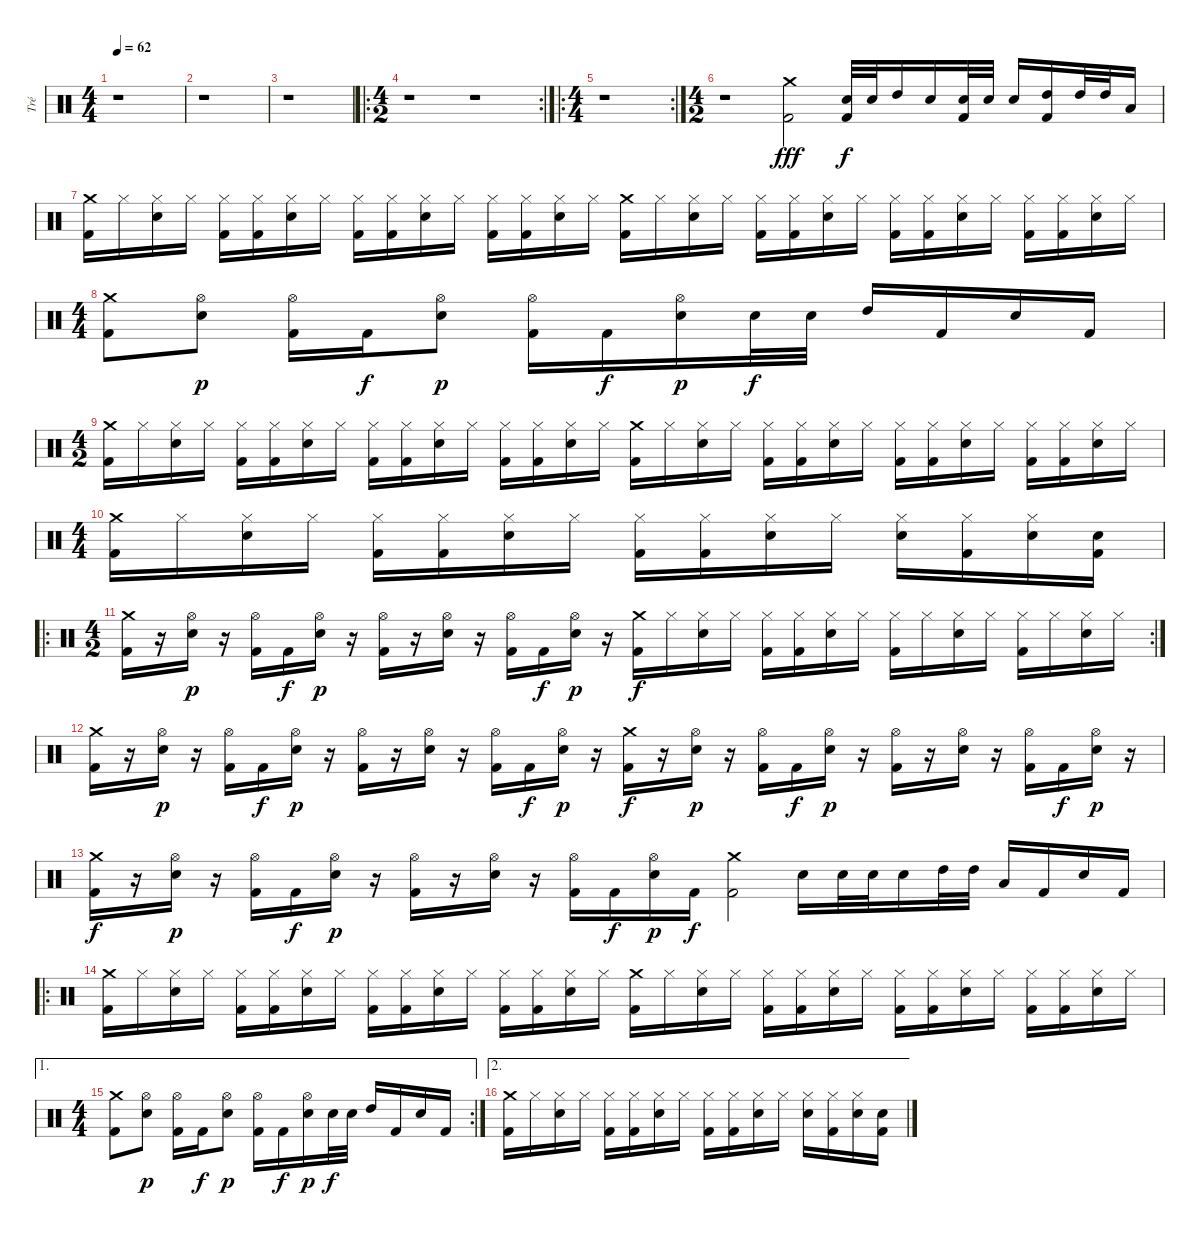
\track ("Tré" "Tré") {instrument percussion}
\staff {score}
\articulation defaults
\ts (4 4)
\tempo 62
\clef neutral
\ks c
r.1{dy fff} |
r.1 |
r.1 |
\ro
\rc 2
\ts (4 2)
r.1 r.1 |
\ro
\rc 2
\ts (4 4)
r.1 |
\ts (4 2)
r.1 ("Crash medium (hit)" "Kick (hit) 2").2 ("Snare (hit) 2" "Kick (hit) 2").32{dy f} "Snare (hit) 2".32 "High Tom (hit)".16 "Snare (hit) 2".16 ("Snare (hit) 2" "Kick (hit) 2").32 "Snare (hit) 2".32 "Snare (hit) 2".16 ("High Tom (hit)" "Kick (hit) 2").16 "High Tom (hit)".32 "High Tom (hit)".32 "Low Tom (hit)".16 |
("Crash medium (hit)" "Kick (hit) 2").16 "Hi-Hat (closed)".16 ("Hi-Hat (closed)" "Snare (hit) 2").16 "Hi-Hat (closed)".16 ("Hi-Hat (closed)" "Kick (hit) 2").16 ("Hi-Hat (closed)" "Kick (hit) 2").16 ("Hi-Hat (closed)" "Snare (hit) 2").16 "Hi-Hat (closed)".16 ("Hi-Hat (closed)" "Kick (hit) 2").16 ("Hi-Hat (closed)" "Kick (hit) 2").16 ("Hi-Hat (closed)" "Snare (hit) 2").16 "Hi-Hat (closed)".16 ("Hi-Hat (closed)" "Kick (hit) 2").16 ("Hi-Hat (closed)" "Kick (hit) 2").16 ("Hi-Hat (closed)" "Snare (hit) 2").16 "Hi-Hat (closed)".16 ("Crash medium (hit)" "Kick (hit) 2").16 "Hi-Hat (closed)".16 ("Hi-Hat (closed)" "Snare (hit) 2").16 "Hi-Hat (closed)".16 ("Hi-Hat (closed)" "Kick (hit) 2").16 ("Hi-Hat (closed)" "Kick (hit) 2").16 ("Hi-Hat (closed)" "Snare (hit) 2").16 "Hi-Hat (closed)".16 ("Hi-Hat (closed)" "Kick (hit) 2").16 ("Hi-Hat (closed)" "Kick (hit) 2").16 ("Hi-Hat (closed)" "Snare (hit) 2").16 "Hi-Hat (closed)".16 ("Hi-Hat (closed)" "Kick (hit) 2").16 ("Hi-Hat (closed)" "Kick (hit) 2").16 ("Hi-Hat (closed)" "Snare (hit) 2").16 "Hi-Hat (closed)".16 |
\ts (4 4)
("Crash medium (hit)" "Kick (hit) 2").8 ("Hi-Hat (open)" "Snare (hit) 2").8{dy p} ("Hi-Hat (open)" "Kick (hit) 2").16 "Kick (hit) 2".16{dy f} ("Hi-Hat (open)" "Snare (hit) 2").8{dy p} ("Hi-Hat (open)" "Kick (hit) 2").16 "Kick (hit) 2".16{dy f} ("Hi-Hat (open)" "Snare (hit) 2").16{dy p} "Snare (hit) 2".32{dy f} "Snare (hit) 2".32 "High Tom (hit)".16 "Kick (hit) 2".16 "Snare (hit) 2".16 "Kick (hit) 2".16 |
\ts (4 2)
("Crash medium (hit)" "Kick (hit) 2").16 "Hi-Hat (closed)".16 ("Hi-Hat (closed)" "Snare (hit) 2").16 "Hi-Hat (closed)".16 ("Hi-Hat (closed)" "Kick (hit) 2").16 ("Hi-Hat (closed)" "Kick (hit) 2").16 ("Hi-Hat (closed)" "Snare (hit) 2").16 "Hi-Hat (closed)".16 ("Hi-Hat (closed)" "Kick (hit) 2").16 ("Hi-Hat (closed)" "Kick (hit) 2").16 ("Hi-Hat (closed)" "Snare (hit) 2").16 "Hi-Hat (closed)".16 ("Hi-Hat (closed)" "Kick (hit) 2").16 ("Hi-Hat (closed)" "Kick (hit) 2").16 ("Hi-Hat (closed)" "Snare (hit) 2").16 "Hi-Hat (closed)".16 ("Crash medium (hit)" "Kick (hit) 2").16 "Hi-Hat (closed)".16 ("Hi-Hat (closed)" "Snare (hit) 2").16 "Hi-Hat (closed)".16 ("Hi-Hat (closed)" "Kick (hit) 2").16 ("Hi-Hat (closed)" "Kick (hit) 2").16 ("Hi-Hat (closed)" "Snare (hit) 2").16 "Hi-Hat (closed)".16 ("Hi-Hat (closed)" "Kick (hit) 2").16 ("Hi-Hat (closed)" "Kick (hit) 2").16 ("Hi-Hat (closed)" "Snare (hit) 2").16 "Hi-Hat (closed)".16 ("Hi-Hat (closed)" "Kick (hit) 2").16 ("Hi-Hat (closed)" "Kick (hit) 2").16 ("Hi-Hat (closed)" "Snare (hit) 2").16 "Hi-Hat (closed)".16 |
\ts (4 4)
("Crash medium (hit)" "Kick (hit) 2").16 "Hi-Hat (closed)".16 ("Hi-Hat (closed)" "Snare (hit) 2").16 "Hi-Hat (closed)".16 ("Hi-Hat (closed)" "Kick (hit) 2").16 ("Hi-Hat (closed)" "Kick (hit) 2").16 ("Hi-Hat (closed)" "Snare (hit) 2").16 "Hi-Hat (closed)".16 ("Hi-Hat (closed)" "Kick (hit) 2").16 ("Hi-Hat (closed)" "Kick (hit) 2").16 ("Hi-Hat (closed)" "Snare (hit) 2").16 "Hi-Hat (closed)".16 ("Hi-Hat (closed)" "Snare (hit) 2").16 ("Hi-Hat (closed)" "Kick (hit) 2").16 ("Hi-Hat (closed)" "Snare (hit) 2").16 ("Snare (hit) 2" "Kick (hit) 2").16 |
\ro
\rc 2
\ts (4 2)
("Crash medium (hit)" "Kick (hit) 2").16 r.16 ("Hi-Hat (open)" "Snare (hit) 2").16{dy p} r.16 ("Hi-Hat (open)" "Kick (hit) 2").16 "Kick (hit) 2".16{dy f} ("Hi-Hat (open)" "Snare (hit) 2").16{dy p} r.16 ("Hi-Hat (open)" "Kick (hit) 2").16 r.16 ("Hi-Hat (open)" "Snare (hit) 2").16 r.16 ("Hi-Hat (open)" "Kick (hit) 2").16 "Kick (hit) 2".16{dy f} ("Hi-Hat (open)" "Snare (hit) 2").16{dy p} r.16 ("Crash medium (hit)" "Kick (hit) 2").16{dy f} "Hi-Hat (closed)".16 ("Hi-Hat (closed)" "Snare (hit) 2").16 "Hi-Hat (closed)".16 ("Hi-Hat (closed)" "Kick (hit) 2").16 ("Hi-Hat (closed)" "Kick (hit) 2").16 ("Hi-Hat (closed)" "Snare (hit) 2").16 "Hi-Hat (closed)".16 ("Hi-Hat (closed)" "Kick (hit) 2").16 "Hi-Hat (closed)".16 ("Hi-Hat (closed)" "Snare (hit) 2").16 "Hi-Hat (closed)".16 ("Hi-Hat (closed)" "Kick (hit) 2").16 "Hi-Hat (closed)".16 ("Hi-Hat (closed)" "Snare (hit) 2").16 "Hi-Hat (closed)".16 |
("Crash medium (hit)" "Kick (hit) 2").16 r.16 ("Hi-Hat (open)" "Snare (hit) 2").16{dy p} r.16 ("Hi-Hat (open)" "Kick (hit) 2").16 "Kick (hit) 2".16{dy f} ("Hi-Hat (open)" "Snare (hit) 2").16{dy p} r.16 ("Hi-Hat (open)" "Kick (hit) 2").16 r.16 ("Hi-Hat (open)" "Snare (hit) 2").16 r.16 ("Hi-Hat (open)" "Kick (hit) 2").16 "Kick (hit) 2".16{dy f} ("Hi-Hat (open)" "Snare (hit) 2").16{dy p} r.16 ("Crash medium (hit)" "Kick (hit) 2").16{dy f} r.16 ("Hi-Hat (open)" "Snare (hit) 2").16{dy p} r.16 ("Hi-Hat (open)" "Kick (hit) 2").16 "Kick (hit) 2".16{dy f} ("Hi-Hat (open)" "Snare (hit) 2").16{dy p} r.16 ("Hi-Hat (open)" "Kick (hit) 2").16 r.16 ("Hi-Hat (open)" "Snare (hit) 2").16 r.16 ("Hi-Hat (open)" "Kick (hit) 2").16 "Kick (hit) 2".16{dy f} ("Hi-Hat (open)" "Snare (hit) 2").16{dy p} r.16 |
("Crash medium (hit)" "Kick (hit) 2").16{dy f} r.16 ("Hi-Hat (open)" "Snare (hit) 2").16{dy p} r.16 ("Hi-Hat (open)" "Kick (hit) 2").16 "Kick (hit) 2".16{dy f} ("Hi-Hat (open)" "Snare (hit) 2").16{dy p} r.16 ("Hi-Hat (open)" "Kick (hit) 2").16 r.16 ("Hi-Hat (open)" "Snare (hit) 2").16 r.16 ("Hi-Hat (open)" "Kick (hit) 2").16 "Kick (hit) 2".16{dy f} ("Hi-Hat (open)" "Snare (hit) 2").16{dy p} "Kick (hit) 2".16{dy f} ("Crash medium (hit)" "Kick (hit) 2").2 "Snare (hit) 2".16 "Snare (hit) 2".32 "Snare (hit) 2".32 "Snare (hit) 2".16 "High Tom (hit)".32 "High Tom (hit)".32 "Low Tom (hit)".16 "Kick (hit) 2".16 "Snare (hit) 2".16 "Kick (hit) 2".16 |
\ro
("Crash medium (hit)" "Kick (hit) 2").16 "Hi-Hat (closed)".16 ("Hi-Hat (closed)" "Snare (hit) 2").16 "Hi-Hat (closed)".16 ("Hi-Hat (closed)" "Kick (hit) 2").16 ("Hi-Hat (closed)" "Kick (hit) 2").16 ("Hi-Hat (closed)" "Snare (hit) 2").16 "Hi-Hat (closed)".16 ("Hi-Hat (closed)" "Kick (hit) 2").16 ("Hi-Hat (closed)" "Kick (hit) 2").16 ("Hi-Hat (closed)" "Snare (hit) 2").16 "Hi-Hat (closed)".16 ("Hi-Hat (closed)" "Kick (hit) 2").16 ("Hi-Hat (closed)" "Kick (hit) 2").16 ("Hi-Hat (closed)" "Snare (hit) 2").16 "Hi-Hat (closed)".16 ("Crash medium (hit)" "Kick (hit) 2").16 "Hi-Hat (closed)".16 ("Hi-Hat (closed)" "Snare (hit) 2").16 "Hi-Hat (closed)".16 ("Hi-Hat (closed)" "Kick (hit) 2").16 ("Hi-Hat (closed)" "Kick (hit) 2").16 ("Hi-Hat (closed)" "Snare (hit) 2").16 "Hi-Hat (closed)".16 ("Hi-Hat (closed)" "Kick (hit) 2").16 ("Hi-Hat (closed)" "Kick (hit) 2").16 ("Hi-Hat (closed)" "Snare (hit) 2").16 "Hi-Hat (closed)".16 ("Hi-Hat (closed)" "Kick (hit) 2").16 ("Hi-Hat (closed)" "Kick (hit) 2").16 ("Hi-Hat (closed)" "Snare (hit) 2").16 "Hi-Hat (closed)".16 |
\ae 1
\rc 2
\ts (4 4)
("Crash medium (hit)" "Kick (hit) 2").8 ("Hi-Hat (open)" "Snare (hit) 2").8{dy p} ("Hi-Hat (open)" "Kick (hit) 2").16 "Kick (hit) 2".16{dy f} ("Hi-Hat (open)" "Snare (hit) 2").8{dy p} ("Hi-Hat (open)" "Kick (hit) 2").16 "Kick (hit) 2".16{dy f} ("Hi-Hat (open)" "Snare (hit) 2").16{dy p} "Snare (hit) 2".32{dy f} "Snare (hit) 2".32 "High Tom (hit)".16 "Kick (hit) 2".16 "Snare (hit) 2".16 "Kick (hit) 2".16 |
\ae 2
("Crash medium (hit)" "Kick (hit) 2").16 "Hi-Hat (closed)".16 ("Hi-Hat (closed)" "Snare (hit) 2").16 "Hi-Hat (closed)".16 ("Hi-Hat (closed)" "Kick (hit) 2").16 ("Hi-Hat (closed)" "Kick (hit) 2").16 ("Hi-Hat (closed)" "Snare (hit) 2").16 "Hi-Hat (closed)".16 ("Hi-Hat (closed)" "Kick (hit) 2").16 ("Hi-Hat (closed)" "Kick (hit) 2").16 ("Hi-Hat (closed)" "Snare (hit) 2").16 "Hi-Hat (closed)".16 ("Hi-Hat (closed)" "Snare (hit) 2").16 ("Hi-Hat (closed)" "Kick (hit) 2").16 ("Hi-Hat (closed)" "Snare (hit) 2").16 ("Snare (hit) 2" "Kick (hit) 2").16
